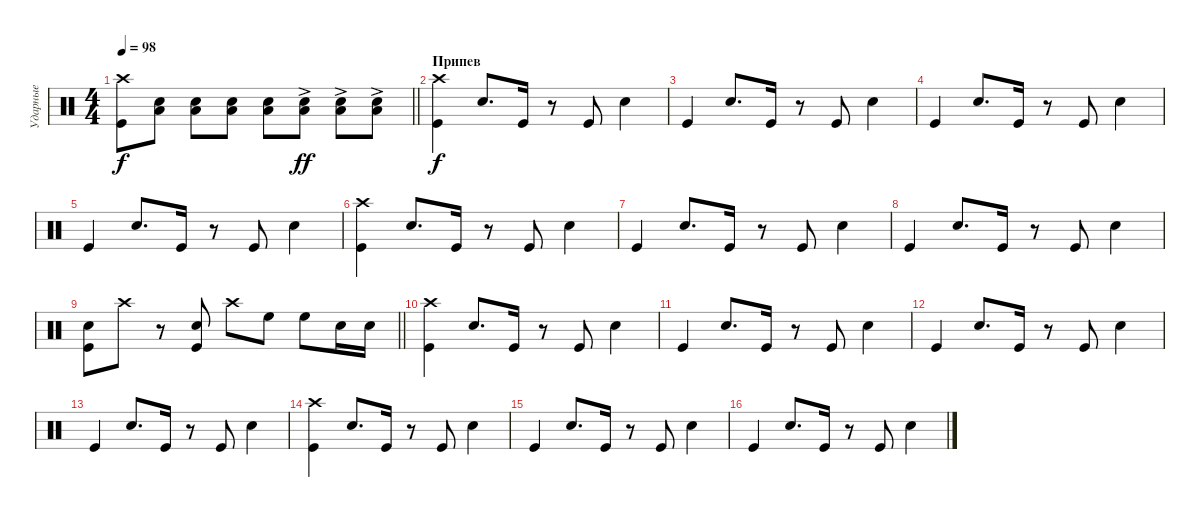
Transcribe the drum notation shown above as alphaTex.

\track ("Ударные" "Ударные") {instrument percussion}
\staff {score}
\articulation defaults
\ts (4 4)
\tempo 98
\clef neutral
\barLineRight lightlight
\ks c
("Crash high (hit)" "Kick (hit)").8{dy f} ("Snare (hit) 2" "Low Tom (hit)").8{volume 5} ("Snare (hit) 2" "Low Tom (hit)").8{volume 13} ("Snare (hit) 2" "Low Tom (hit)").8 ("Snare (hit) 2" "Low Tom (hit)").8 ("Snare (hit) 2"{ac} "Low Tom (hit)"{ac}).8{dy ff} ("Snare (hit) 2"{ac} "Low Tom (hit)"{ac}).8 ("Snare (hit) 2"{ac} "Low Tom (hit)"{ac}).8 |
\section ("" "Припев")
("Crash high (hit)" "Kick (hit)").4{dy f} "Snare (hit) 2".8{d} "Kick (hit)".16 r.8 "Kick (hit)".8 "Snare (hit) 2".4 |
"Kick (hit)".4 "Snare (hit) 2".8{d} "Kick (hit)".16 r.8 "Kick (hit)".8 "Snare (hit) 2".4 |
"Kick (hit)".4 "Snare (hit) 2".8{d} "Kick (hit)".16 r.8 "Kick (hit)".8 "Snare (hit) 2".4 |
"Kick (hit)".4 "Snare (hit) 2".8{d} "Kick (hit)".16 r.8 "Kick (hit)".8 "Snare (hit) 2".4 |
("Crash high (hit)" "Kick (hit)").4 "Snare (hit) 2".8{d} "Kick (hit)".16 r.8 "Kick (hit)".8 "Snare (hit) 2".4 |
"Kick (hit)".4 "Snare (hit) 2".8{d} "Kick (hit)".16 r.8 "Kick (hit)".8 "Snare (hit) 2".4 |
"Kick (hit)".4 "Snare (hit) 2".8{d} "Kick (hit)".16 r.8 "Kick (hit)".8 "Snare (hit) 2".4 |
\barLineRight lightlight
("Snare (hit) 2" "Kick (hit)").8 "Crash high (hit)".8 r.8 ("Snare (hit) 2" "Kick (hit)").8 "Crash high (hit)".8 "High Floor Tom (hit)".8 "High Floor Tom (hit)".8 "Snare (hit) 2".16 "Snare (hit) 2".16 |
("Crash high (hit)" "Kick (hit)").4 "Snare (hit) 2".8{d} "Kick (hit)".16 r.8 "Kick (hit)".8 "Snare (hit) 2".4 |
"Kick (hit)".4 "Snare (hit) 2".8{d} "Kick (hit)".16 r.8 "Kick (hit)".8 "Snare (hit) 2".4 |
"Kick (hit)".4 "Snare (hit) 2".8{d} "Kick (hit)".16 r.8 "Kick (hit)".8 "Snare (hit) 2".4 |
"Kick (hit)".4 "Snare (hit) 2".8{d} "Kick (hit)".16 r.8 "Kick (hit)".8 "Snare (hit) 2".4 |
("Crash high (hit)" "Kick (hit)").4 "Snare (hit) 2".8{d} "Kick (hit)".16 r.8 "Kick (hit)".8 "Snare (hit) 2".4 |
"Kick (hit)".4 "Snare (hit) 2".8{d} "Kick (hit)".16 r.8 "Kick (hit)".8 "Snare (hit) 2".4 |
"Kick (hit)".4 "Snare (hit) 2".8{d} "Kick (hit)".16 r.8 "Kick (hit)".8 "Snare (hit) 2".4
